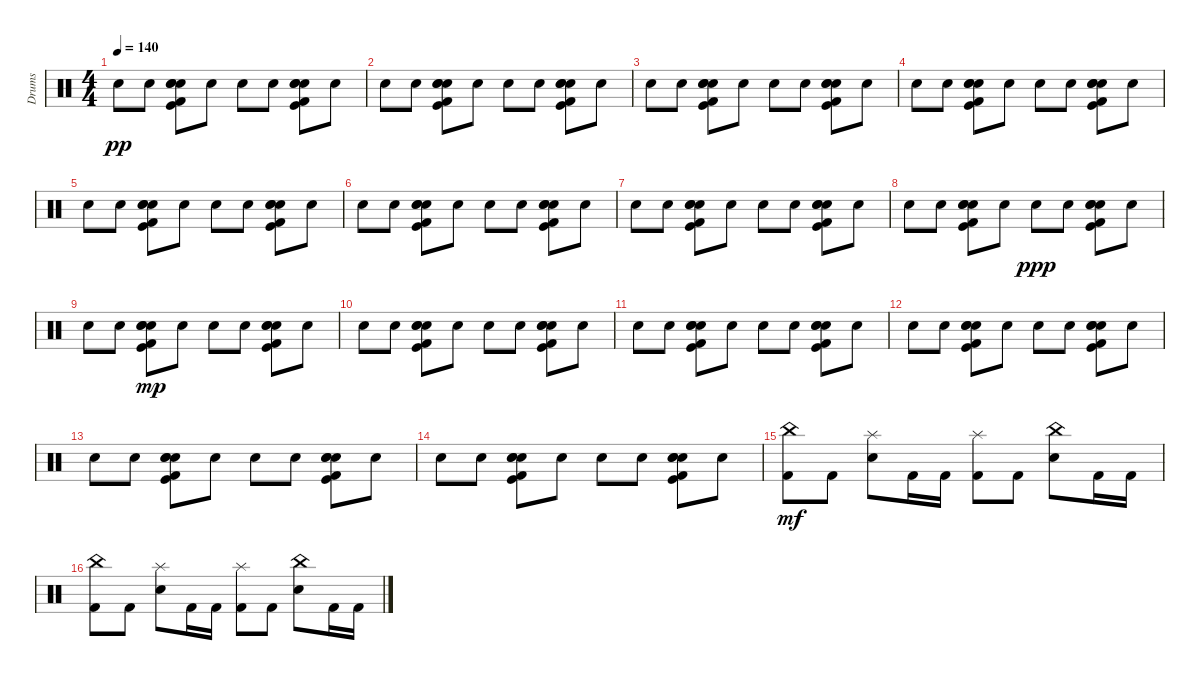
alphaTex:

\track ("Drums" "Drums") {instrument percussion}
\staff {score}
\articulation defaults
\ts (4 4)
\tempo 140
\clef neutral
\ks c "Electric Snare (hit)".8{dy pp} "Electric Snare (hit)".8
("Kick (hit) 2" "Kick (hit)" "Snare (hit) 2" "Electric Snare (hit)" "Electric Snare (hit)").8 "Electric Snare (hit)".8 "Electric Snare (hit)".8 "Electric Snare (hit)".8 ("Snare (hit) 2" "Kick (hit) 2" "Electric Snare (hit)" "Electric Snare (hit)" "Kick (hit)").8 "Electric Snare (hit)".8 |
"Electric Snare (hit)".8 "Electric Snare (hit)".8 ("Kick (hit)" "Electric Snare (hit)" "Kick (hit) 2" "Electric Snare (hit)" "Snare (hit) 2").8 "Electric Snare (hit)".8 "Electric Snare (hit)".8 "Electric Snare (hit)".8 ("Snare (hit) 2" "Kick (hit) 2" "Electric Snare (hit)" "Electric Snare (hit)" "Kick (hit)").8 "Electric Snare (hit)".8 |
"Electric Snare (hit)".8 "Electric Snare (hit)".8 ("Kick (hit) 2" "Snare (hit) 2" "Electric Snare (hit)" "Kick (hit)" "Electric Snare (hit)").8 "Electric Snare (hit)".8 "Electric Snare (hit)".8 "Electric Snare (hit)".8 ("Snare (hit) 2" "Kick (hit) 2" "Electric Snare (hit)" "Electric Snare (hit)" "Kick (hit)").8 "Electric Snare (hit)".8 |
"Electric Snare (hit)".8 "Electric Snare (hit)".8 ("Kick (hit) 2" "Kick (hit)" "Snare (hit) 2" "Electric Snare (hit)" "Electric Snare (hit)").8 "Electric Snare (hit)".8 "Electric Snare (hit)".8 "Electric Snare (hit)".8 ("Snare (hit) 2" "Kick (hit) 2" "Kick (hit)" "Electric Snare (hit)" "Electric Snare (hit)").8 "Electric Snare (hit)".8 |
"Electric Snare (hit)".8 "Electric Snare (hit)".8 ("Electric Snare (hit)" "Electric Snare (hit)" "Snare (hit) 2" "Kick (hit) 2" "Kick (hit)").8 "Electric Snare (hit)".8 "Electric Snare (hit)".8 "Electric Snare (hit)".8 ("Kick (hit) 2" "Snare (hit) 2" "Electric Snare (hit)" "Electric Snare (hit)" "Kick (hit)").8 "Electric Snare (hit)".8 |
"Electric Snare (hit)".8 "Electric Snare (hit)".8 ("Electric Snare (hit)" "Electric Snare (hit)" "Snare (hit) 2" "Kick (hit) 2" "Kick (hit)").8 "Electric Snare (hit)".8 "Electric Snare (hit)".8 "Electric Snare (hit)".8 ("Kick (hit) 2" "Snare (hit) 2" "Electric Snare (hit)" "Electric Snare (hit)" "Kick (hit)").8 "Electric Snare (hit)".8 |
"Electric Snare (hit)".8 "Electric Snare (hit)".8 ("Kick (hit) 2" "Electric Snare (hit)" "Snare (hit) 2" "Kick (hit)" "Electric Snare (hit)").8 "Electric Snare (hit)".8 "Electric Snare (hit)".8 "Electric Snare (hit)".8 ("Kick (hit) 2" "Snare (hit) 2" "Electric Snare (hit)" "Electric Snare (hit)" "Kick (hit)").8 "Electric Snare (hit)".8 |
"Electric Snare (hit)".8 "Electric Snare (hit)".8 ("Kick (hit) 2" "Snare (hit) 2" "Electric Snare (hit)" "Electric Snare (hit)" "Kick (hit)").8 "Electric Snare (hit)".8 "Electric Snare (hit)".8{dy ppp} "Electric Snare (hit)".8 ("Kick (hit) 2" "Snare (hit) 2" "Electric Snare (hit)" "Electric Snare (hit)" "Kick (hit)").8 "Electric Snare (hit)".8 |
"Electric Snare (hit)".8 "Electric Snare (hit)".8 ("Electric Snare (hit)" "Electric Snare (hit)" "Snare (hit) 2" "Kick (hit) 2" "Kick (hit)").8{dy mp} "Electric Snare (hit)".8 "Electric Snare (hit)".8 "Electric Snare (hit)".8 ("Kick (hit) 2" "Kick (hit)" "Snare (hit) 2" "Electric Snare (hit)" "Electric Snare (hit)").8 "Electric Snare (hit)".8 |
"Electric Snare (hit)".8 "Electric Snare (hit)".8 ("Electric Snare (hit)" "Electric Snare (hit)" "Snare (hit) 2" "Kick (hit) 2" "Kick (hit)").8 "Electric Snare (hit)".8 "Electric Snare (hit)".8 "Electric Snare (hit)".8 ("Kick (hit) 2" "Snare (hit) 2" "Electric Snare (hit)" "Electric Snare (hit)" "Kick (hit)").8 "Electric Snare (hit)".8 |
"Electric Snare (hit)".8 "Electric Snare (hit)".8 ("Kick (hit) 2" "Kick (hit)" "Electric Snare (hit)" "Snare (hit) 2" "Electric Snare (hit)").8 "Electric Snare (hit)".8 "Electric Snare (hit)".8 "Electric Snare (hit)".8 ("Kick (hit) 2" "Snare (hit) 2" "Electric Snare (hit)" "Electric Snare (hit)" "Kick (hit)").8 "Electric Snare (hit)".8 |
"Electric Snare (hit)".8 "Electric Snare (hit)".8 ("Electric Snare (hit)" "Snare (hit) 2" "Kick (hit)" "Electric Snare (hit)" "Kick (hit) 2").8 "Electric Snare (hit)".8 "Electric Snare (hit)".8 "Electric Snare (hit)".8 ("Kick (hit) 2" "Snare (hit) 2" "Electric Snare (hit)" "Electric Snare (hit)" "Kick (hit)").8 "Electric Snare (hit)".8 |
"Electric Snare (hit)".8 "Electric Snare (hit)".8 ("Kick (hit) 2" "Snare (hit) 2" "Electric Snare (hit)" "Electric Snare (hit)" "Kick (hit)").8 "Electric Snare (hit)".8 "Electric Snare (hit)".8 "Electric Snare (hit)".8 ("Kick (hit) 2" "Snare (hit) 2" "Electric Snare (hit)" "Electric Snare (hit)" "Kick (hit)").8 "Electric Snare (hit)".8 |
"Electric Snare (hit)".8 "Electric Snare (hit)".8 ("Kick (hit) 2" "Kick (hit)" "Electric Snare (hit)" "Snare (hit) 2" "Electric Snare (hit)").8 "Electric Snare (hit)".8 "Electric Snare (hit)".8 "Electric Snare (hit)".8 ("Kick (hit) 2" "Kick (hit)" "Electric Snare (hit)" "Snare (hit) 2" "Electric Snare (hit)").8 "Electric Snare (hit)".8 |
("China (hit)" "Kick (hit) 2").8{dy mf} "Kick (hit) 2".8 ("Splash (hit)" "Electric Snare (hit)").8 "Kick (hit) 2".16 "Kick (hit) 2".16 ("Splash (hit)" "Kick (hit) 2").8 "Kick (hit) 2".8 ("Electric Snare (hit)" "China (hit)").8 "Kick (hit) 2".16 "Kick (hit) 2".16 |
("China (hit)" "Kick (hit) 2").8 "Kick (hit) 2".8 ("Electric Snare (hit)" "Splash (hit)").8 "Kick (hit) 2".16 "Kick (hit) 2".16 ("Kick (hit) 2" "Splash (hit)").8 "Kick (hit) 2".8 ("Electric Snare (hit)" "China (hit)").8 "Kick (hit) 2".16 "Kick (hit) 2".16
